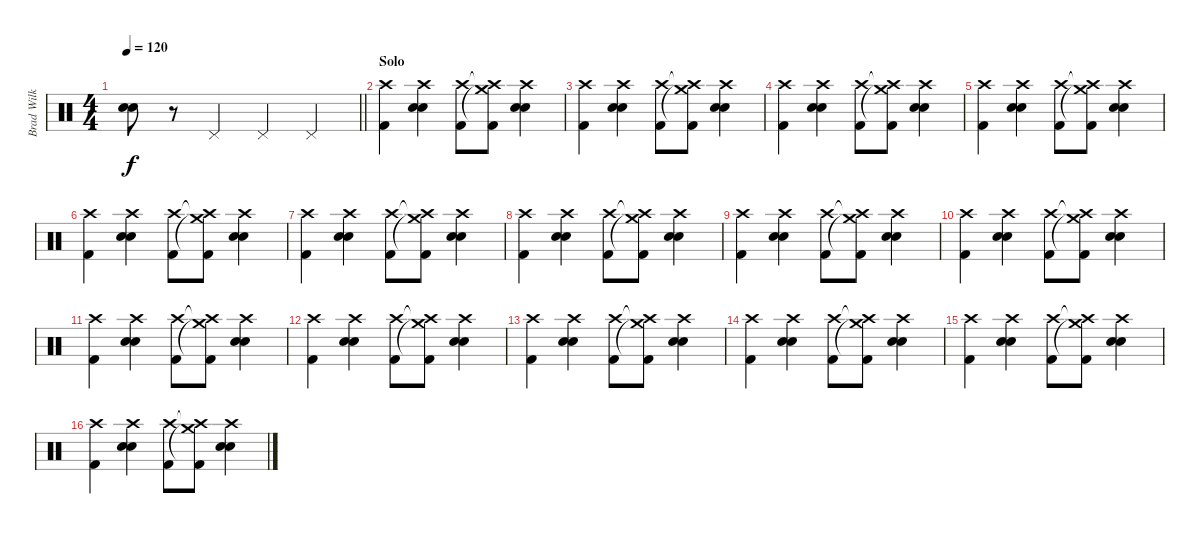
\track ("Brad Wilk" "Brad Wilk") {instrument percussion}
\staff {score}
\articulation defaults
\ts (4 4)
\tempo 120
\clef neutral
\barLineRight lightlight
\ks c
("Electric Snare (hit)" "Electric Snare (hit)").8{bd 60 dy f} r.8 "Pedal Hi-Hat (hit)".4 "Pedal Hi-Hat (hit)".4 "Pedal Hi-Hat (hit)".4 |
\section ("" "Solo")
("Crash high (hit)" "Kick (hit) 2").4 ("Electric Snare (hit)" "Snare (hit) 2" "Crash high (hit)").4 ("Crash high (hit)" "Kick (hit) 2").8 ("Crash high (hit)"{t} "Crash medium (hit)"{t} "Kick (hit) 2").8 ("Electric Snare (hit)" "Snare (hit) 2" "Crash high (hit)").4 |
("Crash high (hit)" "Kick (hit) 2").4 ("Electric Snare (hit)" "Snare (hit) 2" "Crash high (hit)").4 ("Crash high (hit)" "Kick (hit) 2").8 ("Crash high (hit)"{t} "Crash medium (hit)"{t} "Kick (hit) 2").8 ("Electric Snare (hit)" "Snare (hit) 2" "Crash high (hit)").4 |
("Crash high (hit)" "Kick (hit) 2").4 ("Electric Snare (hit)" "Snare (hit) 2" "Crash high (hit)").4 ("Crash high (hit)" "Kick (hit) 2").8 ("Crash high (hit)"{t} "Crash medium (hit)"{t} "Kick (hit) 2").8 ("Electric Snare (hit)" "Snare (hit) 2" "Crash high (hit)").4 |
("Crash high (hit)" "Kick (hit) 2").4 ("Electric Snare (hit)" "Snare (hit) 2" "Crash high (hit)").4 ("Crash high (hit)" "Kick (hit) 2").8 ("Crash high (hit)"{t} "Crash medium (hit)"{t} "Kick (hit) 2").8 ("Electric Snare (hit)" "Snare (hit) 2" "Crash high (hit)").4 |
("Crash high (hit)" "Kick (hit) 2").4 ("Electric Snare (hit)" "Snare (hit) 2" "Crash high (hit)").4 ("Crash high (hit)" "Kick (hit) 2").8 ("Crash high (hit)"{t} "Crash medium (hit)"{t} "Kick (hit) 2").8 ("Electric Snare (hit)" "Snare (hit) 2" "Crash high (hit)").4 |
("Crash high (hit)" "Kick (hit) 2").4 ("Electric Snare (hit)" "Snare (hit) 2" "Crash high (hit)").4 ("Crash high (hit)" "Kick (hit) 2").8 ("Crash high (hit)"{t} "Crash medium (hit)"{t} "Kick (hit) 2").8 ("Electric Snare (hit)" "Snare (hit) 2" "Crash high (hit)").4 |
("Crash high (hit)" "Kick (hit) 2").4 ("Electric Snare (hit)" "Snare (hit) 2" "Crash high (hit)").4 ("Crash high (hit)" "Kick (hit) 2").8 ("Crash high (hit)"{t} "Crash medium (hit)"{t} "Kick (hit) 2").8 ("Electric Snare (hit)" "Snare (hit) 2" "Crash high (hit)").4 |
("Crash high (hit)" "Kick (hit) 2").4 ("Electric Snare (hit)" "Snare (hit) 2" "Crash high (hit)").4 ("Crash high (hit)" "Kick (hit) 2").8 ("Crash high (hit)"{t} "Crash medium (hit)"{t} "Kick (hit) 2").8 ("Electric Snare (hit)" "Snare (hit) 2" "Crash high (hit)").4 |
("Crash high (hit)" "Kick (hit) 2").4 ("Electric Snare (hit)" "Snare (hit) 2" "Crash high (hit)").4 ("Crash high (hit)" "Kick (hit) 2").8 ("Crash high (hit)"{t} "Crash medium (hit)"{t} "Kick (hit) 2").8 ("Electric Snare (hit)" "Snare (hit) 2" "Crash high (hit)").4 |
("Crash high (hit)" "Kick (hit) 2").4 ("Electric Snare (hit)" "Snare (hit) 2" "Crash high (hit)").4 ("Crash high (hit)" "Kick (hit) 2").8 ("Crash high (hit)"{t} "Crash medium (hit)"{t} "Kick (hit) 2").8 ("Electric Snare (hit)" "Snare (hit) 2" "Crash high (hit)").4 |
("Crash high (hit)" "Kick (hit) 2").4 ("Electric Snare (hit)" "Snare (hit) 2" "Crash high (hit)").4 ("Crash high (hit)" "Kick (hit) 2").8 ("Crash high (hit)"{t} "Crash medium (hit)"{t} "Kick (hit) 2").8 ("Electric Snare (hit)" "Snare (hit) 2" "Crash high (hit)").4 |
("Crash high (hit)" "Kick (hit) 2").4 ("Electric Snare (hit)" "Snare (hit) 2" "Crash high (hit)").4 ("Crash high (hit)" "Kick (hit) 2").8 ("Crash high (hit)"{t} "Crash medium (hit)"{t} "Kick (hit) 2").8 ("Electric Snare (hit)" "Snare (hit) 2" "Crash high (hit)").4 |
("Crash high (hit)" "Kick (hit) 2").4 ("Electric Snare (hit)" "Snare (hit) 2" "Crash high (hit)").4 ("Crash high (hit)" "Kick (hit) 2").8 ("Crash high (hit)"{t} "Crash medium (hit)"{t} "Kick (hit) 2").8 ("Electric Snare (hit)" "Snare (hit) 2" "Crash high (hit)").4 |
("Crash high (hit)" "Kick (hit) 2").4 ("Electric Snare (hit)" "Snare (hit) 2" "Crash high (hit)").4 ("Crash high (hit)" "Kick (hit) 2").8 ("Crash high (hit)"{t} "Crash medium (hit)"{t} "Kick (hit) 2").8 ("Electric Snare (hit)" "Snare (hit) 2" "Crash high (hit)").4 |
("Crash high (hit)" "Kick (hit) 2").4 ("Electric Snare (hit)" "Snare (hit) 2" "Crash high (hit)").4 ("Crash high (hit)" "Kick (hit) 2").8 ("Crash high (hit)"{t} "Crash medium (hit)"{t} "Kick (hit) 2").8 ("Electric Snare (hit)" "Snare (hit) 2" "Crash high (hit)").4
